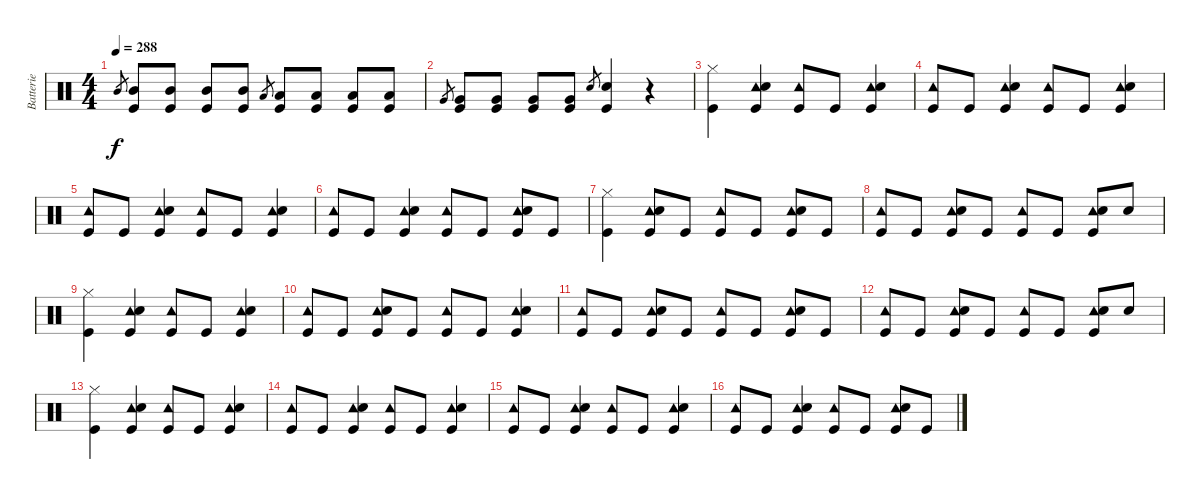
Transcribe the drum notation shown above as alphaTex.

\track ("Batterie" "Batterie") {instrument percussion}
\staff {score}
\articulation defaults
\ts (4 4)
\tempo 288
\clef neutral
\ks c "Mid Tom (hit)".8{gr dy f}
("Mid Tom (hit)" "Kick (hit)").8 ("Mid Tom (hit)" "Kick (hit)").8 ("Mid Tom (hit)" "Kick (hit)").8 ("Mid Tom (hit)" "Kick (hit)").8 "Low Tom (hit)".8{gr} ("Low Tom (hit)" "Kick (hit)").8 ("Low Tom (hit)" "Kick (hit)").8 ("Low Tom (hit)" "Kick (hit)").8 ("Low Tom (hit)" "Kick (hit)").8 |
"Very Low Tom (hit)".8{gr} ("Very Low Tom (hit)" "Kick (hit)").8 ("Very Low Tom (hit)" "Kick (hit)").8 ("Very Low Tom (hit)" "Kick (hit)").8 ("Very Low Tom (hit)" "Kick (hit)").8 "Snare (hit) 2".8{gr} ("Snare (hit) 2" "Kick (hit)").4 r.4 |
("Hi-Hat (closed)" "Kick (hit)").4 ("Tambourine (hit)" "Snare (hit) 2" "Kick (hit)").4 ("Tambourine (hit)" "Kick (hit)").8 "Kick (hit)".8 ("Tambourine (hit)" "Snare (hit) 2" "Kick (hit)").4 |
("Tambourine (hit)" "Kick (hit)").8 "Kick (hit)".8 ("Tambourine (hit)" "Snare (hit) 2" "Kick (hit)").4 ("Tambourine (hit)" "Kick (hit)").8 "Kick (hit)".8 ("Tambourine (hit)" "Snare (hit) 2" "Kick (hit)").4 |
("Tambourine (hit)" "Kick (hit)").8 "Kick (hit)".8 ("Tambourine (hit)" "Snare (hit) 2" "Kick (hit)").4 ("Tambourine (hit)" "Kick (hit)").8 "Kick (hit)".8 ("Tambourine (hit)" "Snare (hit) 2" "Kick (hit)").4 |
("Tambourine (hit)" "Kick (hit)").8 "Kick (hit)".8 ("Tambourine (hit)" "Snare (hit) 2" "Kick (hit)").4 ("Tambourine (hit)" "Kick (hit)").8 "Kick (hit)".8 ("Tambourine (hit)" "Snare (hit) 2" "Kick (hit)").8 "Kick (hit)".8 |
("Hi-Hat (closed)" "Kick (hit)").4 ("Tambourine (hit)" "Snare (hit) 2" "Kick (hit)").8 "Kick (hit)".8 ("Tambourine (hit)" "Kick (hit)").8 "Kick (hit)".8 ("Tambourine (hit)" "Snare (hit) 2" "Kick (hit)").8 "Kick (hit)".8 |
("Tambourine (hit)" "Kick (hit)").8 "Kick (hit)".8 ("Tambourine (hit)" "Snare (hit) 2" "Kick (hit)").8 "Kick (hit)".8 ("Tambourine (hit)" "Kick (hit)").8 "Kick (hit)".8 ("Tambourine (hit)" "Snare (hit) 2" "Kick (hit)").8 "Snare (hit) 2".8 |
("Hi-Hat (closed)" "Kick (hit)").4 ("Tambourine (hit)" "Snare (hit) 2" "Kick (hit)").4 ("Tambourine (hit)" "Kick (hit)").8 "Kick (hit)".8 ("Tambourine (hit)" "Snare (hit) 2" "Kick (hit)").4 |
("Tambourine (hit)" "Kick (hit)").8 "Kick (hit)".8 ("Tambourine (hit)" "Snare (hit) 2" "Kick (hit)").8 "Kick (hit)".8 ("Tambourine (hit)" "Kick (hit)").8 "Kick (hit)".8 ("Tambourine (hit)" "Snare (hit) 2" "Kick (hit)").4 |
("Tambourine (hit)" "Kick (hit)").8 "Kick (hit)".8 ("Tambourine (hit)" "Snare (hit) 2" "Kick (hit)").8 "Kick (hit)".8 ("Tambourine (hit)" "Kick (hit)").8 "Kick (hit)".8 ("Tambourine (hit)" "Snare (hit) 2" "Kick (hit)").8 "Kick (hit)".8 |
("Tambourine (hit)" "Kick (hit)").8 "Kick (hit)".8 ("Tambourine (hit)" "Snare (hit) 2" "Kick (hit)").8 "Kick (hit)".8 ("Tambourine (hit)" "Kick (hit)").8 "Kick (hit)".8 ("Tambourine (hit)" "Snare (hit) 2" "Kick (hit)").8 "Snare (hit) 2".8 |
("Hi-Hat (closed)" "Kick (hit)").4 ("Tambourine (hit)" "Snare (hit) 2" "Kick (hit)").4 ("Tambourine (hit)" "Kick (hit)").8 "Kick (hit)".8 ("Tambourine (hit)" "Snare (hit) 2" "Kick (hit)").4 |
("Tambourine (hit)" "Kick (hit)").8 "Kick (hit)".8 ("Tambourine (hit)" "Snare (hit) 2" "Kick (hit)").4 ("Tambourine (hit)" "Kick (hit)").8 "Kick (hit)".8 ("Tambourine (hit)" "Snare (hit) 2" "Kick (hit)").4 |
("Tambourine (hit)" "Kick (hit)").8 "Kick (hit)".8 ("Tambourine (hit)" "Snare (hit) 2" "Kick (hit)").4 ("Tambourine (hit)" "Kick (hit)").8 "Kick (hit)".8 ("Tambourine (hit)" "Snare (hit) 2" "Kick (hit)").4 |
("Tambourine (hit)" "Kick (hit)").8 "Kick (hit)".8 ("Tambourine (hit)" "Snare (hit) 2" "Kick (hit)").4 ("Tambourine (hit)" "Kick (hit)").8 "Kick (hit)".8 ("Tambourine (hit)" "Snare (hit) 2" "Kick (hit)").8 "Kick (hit)".8
